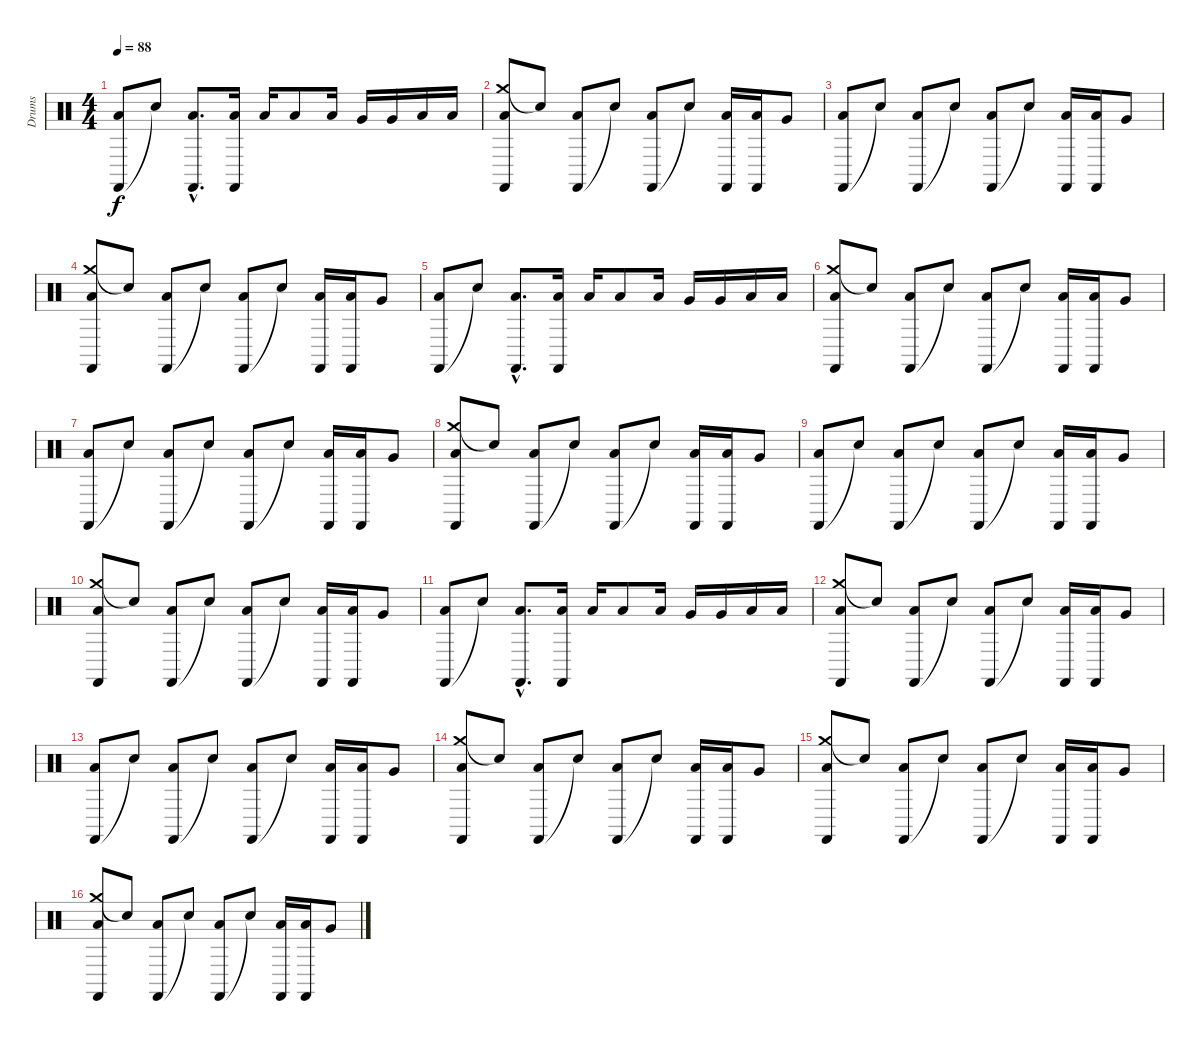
\track ("Drums" "Drums") {instrument percussion}
\staff {score}
\articulation defaults
\ts (4 4)
\tempo 88
\clef neutral
\ks c
("Castanets (hit)" "Low Floor Tom (hit)").8{dy f} "Snare (hit)"{t}.8 ("Castanets (hit)"{hac} "Low Floor Tom (hit)"{hac}).8{d} ("Castanets (hit)" "Low Floor Tom (hit)").16 "Low Tom (hit)".16 "Low Tom (hit)".8 "Low Tom (hit)".16 "Very Low Tom (hit)".16 "Very Low Tom (hit)".16 "Low Floor Tom (hit)".16 "Low Floor Tom (hit)".16 |
("Crash medium (hit)" "Castanets (hit)" "Low Floor Tom (hit)").8 "Snare (hit)"{t}.8 ("Castanets (hit)" "Low Floor Tom (hit)").8 "Snare (hit)"{t}.8 ("Castanets (hit)" "Low Floor Tom (hit)").8 "Snare (hit)"{t}.8 ("Castanets (hit)" "Low Floor Tom (hit)").16 ("Castanets (hit)" "Low Floor Tom (hit)").16 "Very Low Tom (hit)".8 |
("Castanets (hit)" "Low Floor Tom (hit)").8 "Snare (hit)"{t}.8 ("Castanets (hit)" "Low Floor Tom (hit)").8 "Snare (hit)"{t}.8 ("Castanets (hit)" "Low Floor Tom (hit)").8 "Snare (hit)"{t}.8 ("Castanets (hit)" "Low Floor Tom (hit)").16 ("Castanets (hit)" "Low Floor Tom (hit)").16 "Very Low Tom (hit)".8 |
("Crash medium (hit)" "Castanets (hit)" "Low Floor Tom (hit)").8 "Snare (hit)"{t}.8 ("Castanets (hit)" "Low Floor Tom (hit)").8 "Snare (hit)"{t}.8 ("Castanets (hit)" "Low Floor Tom (hit)").8 "Snare (hit)"{t}.8 ("Castanets (hit)" "Low Floor Tom (hit)").16 ("Castanets (hit)" "Low Floor Tom (hit)").16 "Very Low Tom (hit)".8 |
("Castanets (hit)" "Low Floor Tom (hit)").8 "Snare (hit)"{t}.8 ("Castanets (hit)"{hac} "Low Floor Tom (hit)"{hac}).8{d} ("Castanets (hit)" "Low Floor Tom (hit)").16 "Low Tom (hit)".16 "Low Tom (hit)".8 "Low Tom (hit)".16 "Very Low Tom (hit)".16 "Very Low Tom (hit)".16 "Low Floor Tom (hit)".16 "Low Floor Tom (hit)".16 |
("Crash medium (hit)" "Castanets (hit)" "Low Floor Tom (hit)").8 "Snare (hit)"{t}.8 ("Castanets (hit)" "Low Floor Tom (hit)").8 "Snare (hit)"{t}.8 ("Castanets (hit)" "Low Floor Tom (hit)").8 "Snare (hit)"{t}.8 ("Castanets (hit)" "Low Floor Tom (hit)").16 ("Castanets (hit)" "Low Floor Tom (hit)").16 "Very Low Tom (hit)".8 |
("Castanets (hit)" "Low Floor Tom (hit)").8 "Snare (hit)"{t}.8 ("Castanets (hit)" "Low Floor Tom (hit)").8 "Snare (hit)"{t}.8 ("Castanets (hit)" "Low Floor Tom (hit)").8 "Snare (hit)"{t}.8 ("Castanets (hit)" "Low Floor Tom (hit)").16 ("Castanets (hit)" "Low Floor Tom (hit)").16 "Very Low Tom (hit)".8 |
("Crash medium (hit)" "Castanets (hit)" "Low Floor Tom (hit)").8 "Snare (hit)"{t}.8 ("Castanets (hit)" "Low Floor Tom (hit)").8 "Snare (hit)"{t}.8 ("Castanets (hit)" "Low Floor Tom (hit)").8 "Snare (hit)"{t}.8 ("Castanets (hit)" "Low Floor Tom (hit)").16 ("Castanets (hit)" "Low Floor Tom (hit)").16 "Very Low Tom (hit)".8 |
("Castanets (hit)" "Low Floor Tom (hit)").8 "Snare (hit)"{t}.8 ("Castanets (hit)" "Low Floor Tom (hit)").8 "Snare (hit)"{t}.8 ("Castanets (hit)" "Low Floor Tom (hit)").8 "Snare (hit)"{t}.8 ("Castanets (hit)" "Low Floor Tom (hit)").16 ("Castanets (hit)" "Low Floor Tom (hit)").16 "Very Low Tom (hit)".8 |
("Crash medium (hit)" "Castanets (hit)" "Low Floor Tom (hit)").8 "Snare (hit)"{t}.8 ("Castanets (hit)" "Low Floor Tom (hit)").8 "Snare (hit)"{t}.8 ("Castanets (hit)" "Low Floor Tom (hit)").8 "Snare (hit)"{t}.8 ("Castanets (hit)" "Low Floor Tom (hit)").16 ("Castanets (hit)" "Low Floor Tom (hit)").16 "Very Low Tom (hit)".8 |
("Castanets (hit)" "Low Floor Tom (hit)").8 "Snare (hit)"{t}.8 ("Castanets (hit)"{hac} "Low Floor Tom (hit)"{hac}).8{d} ("Castanets (hit)" "Low Floor Tom (hit)").16 "Low Tom (hit)".16 "Low Tom (hit)".8 "Low Tom (hit)".16 "Very Low Tom (hit)".16 "Very Low Tom (hit)".16 "Low Floor Tom (hit)".16 "Low Floor Tom (hit)".16 |
("Crash medium (hit)" "Castanets (hit)" "Low Floor Tom (hit)").8 "Snare (hit)"{t}.8 ("Castanets (hit)" "Low Floor Tom (hit)").8 "Snare (hit)"{t}.8 ("Castanets (hit)" "Low Floor Tom (hit)").8 "Snare (hit)"{t}.8 ("Castanets (hit)" "Low Floor Tom (hit)").16 ("Castanets (hit)" "Low Floor Tom (hit)").16 "Very Low Tom (hit)".8 |
("Castanets (hit)" "Low Floor Tom (hit)").8 "Snare (hit)"{t}.8 ("Castanets (hit)" "Low Floor Tom (hit)").8 "Snare (hit)"{t}.8 ("Castanets (hit)" "Low Floor Tom (hit)").8 "Snare (hit)"{t}.8 ("Castanets (hit)" "Low Floor Tom (hit)").16 ("Castanets (hit)" "Low Floor Tom (hit)").16 "Very Low Tom (hit)".8 |
("Crash medium (hit)" "Castanets (hit)" "Low Floor Tom (hit)").8 "Snare (hit)"{t}.8 ("Castanets (hit)" "Low Floor Tom (hit)").8 "Snare (hit)"{t}.8 ("Castanets (hit)" "Low Floor Tom (hit)").8 "Snare (hit)"{t}.8 ("Castanets (hit)" "Low Floor Tom (hit)").16 ("Castanets (hit)" "Low Floor Tom (hit)").16 "Very Low Tom (hit)".8 |
("Crash medium (hit)" "Castanets (hit)" "Low Floor Tom (hit)").8 "Snare (hit)"{t}.8 ("Castanets (hit)" "Low Floor Tom (hit)").8 "Snare (hit)"{t}.8 ("Castanets (hit)" "Low Floor Tom (hit)").8 "Snare (hit)"{t}.8 ("Castanets (hit)" "Low Floor Tom (hit)").16 ("Castanets (hit)" "Low Floor Tom (hit)").16 "Very Low Tom (hit)".8 |
("Crash medium (hit)" "Castanets (hit)" "Low Floor Tom (hit)").8 "Snare (hit)"{t}.8 ("Castanets (hit)" "Low Floor Tom (hit)").8 "Snare (hit)"{t}.8 ("Castanets (hit)" "Low Floor Tom (hit)").8 "Snare (hit)"{t}.8 ("Castanets (hit)" "Low Floor Tom (hit)").16 ("Castanets (hit)" "Low Floor Tom (hit)").16 "Very Low Tom (hit)".8
